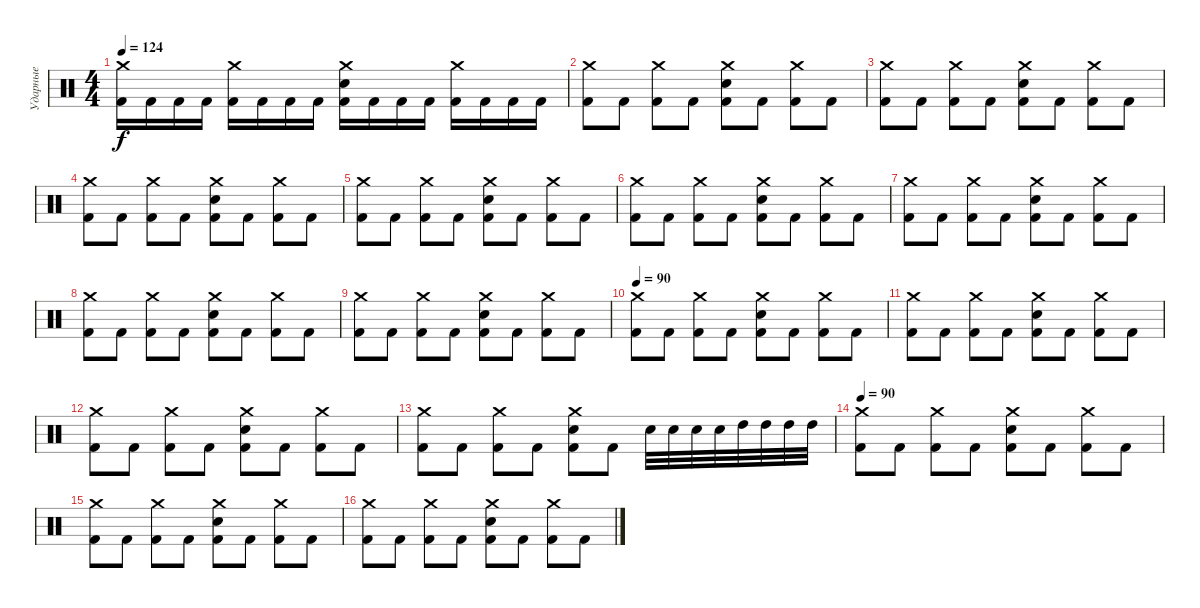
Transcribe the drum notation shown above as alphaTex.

\track ("Ударные" "Ударные") {instrument percussion}
\staff {score}
\articulation defaults
\ts (4 4)
\tempo 124
\clef neutral
\ks c
("Crash medium (hit)" "Kick (hit) 2").16{dy f} "Kick (hit) 2".16 "Kick (hit) 2".16 "Kick (hit) 2".16 ("Crash medium (hit)" "Kick (hit) 2").16 "Kick (hit) 2".16 "Kick (hit) 2".16 "Kick (hit) 2".16 ("Crash medium (hit)" "Electric Snare (hit)" "Kick (hit) 2").16 "Kick (hit) 2".16 "Kick (hit) 2".16 "Kick (hit) 2".16 ("Crash medium (hit)" "Kick (hit) 2").16 "Kick (hit) 2".16 "Kick (hit) 2".16 "Kick (hit) 2".16 |
("Crash medium (hit)" "Kick (hit) 2").8 "Kick (hit) 2".8 ("Crash medium (hit)" "Kick (hit) 2").8 "Kick (hit) 2".8 ("Crash medium (hit)" "Electric Snare (hit)" "Kick (hit) 2").8 "Kick (hit) 2".8 ("Crash medium (hit)" "Kick (hit) 2").8 "Kick (hit) 2".8 |
("Crash medium (hit)" "Kick (hit) 2").8 "Kick (hit) 2".8 ("Crash medium (hit)" "Kick (hit) 2").8 "Kick (hit) 2".8 ("Crash medium (hit)" "Electric Snare (hit)" "Kick (hit) 2").8 "Kick (hit) 2".8 ("Crash medium (hit)" "Kick (hit) 2").8 "Kick (hit) 2".8 |
("Crash medium (hit)" "Kick (hit) 2").8 "Kick (hit) 2".8 ("Crash medium (hit)" "Kick (hit) 2").8 "Kick (hit) 2".8 ("Crash medium (hit)" "Electric Snare (hit)" "Kick (hit) 2").8 "Kick (hit) 2".8 ("Crash medium (hit)" "Kick (hit) 2").8 "Kick (hit) 2".8 |
("Crash medium (hit)" "Kick (hit) 2").8 "Kick (hit) 2".8 ("Crash medium (hit)" "Kick (hit) 2").8 "Kick (hit) 2".8 ("Crash medium (hit)" "Electric Snare (hit)" "Kick (hit) 2").8 "Kick (hit) 2".8 ("Crash medium (hit)" "Kick (hit) 2").8 "Kick (hit) 2".8 |
("Crash medium (hit)" "Kick (hit) 2").8 "Kick (hit) 2".8 ("Crash medium (hit)" "Kick (hit) 2").8 "Kick (hit) 2".8 ("Crash medium (hit)" "Electric Snare (hit)" "Kick (hit) 2").8 "Kick (hit) 2".8 ("Crash medium (hit)" "Kick (hit) 2").8 "Kick (hit) 2".8 |
("Crash medium (hit)" "Kick (hit) 2").8 "Kick (hit) 2".8 ("Crash medium (hit)" "Kick (hit) 2").8 "Kick (hit) 2".8 ("Crash medium (hit)" "Electric Snare (hit)" "Kick (hit) 2").8 "Kick (hit) 2".8 ("Crash medium (hit)" "Kick (hit) 2").8 "Kick (hit) 2".8 |
("Crash medium (hit)" "Kick (hit) 2").8 "Kick (hit) 2".8 ("Crash medium (hit)" "Kick (hit) 2").8 "Kick (hit) 2".8 ("Crash medium (hit)" "Electric Snare (hit)" "Kick (hit) 2").8 "Kick (hit) 2".8 ("Crash medium (hit)" "Kick (hit) 2").8 "Kick (hit) 2".8 |
("Crash medium (hit)" "Kick (hit) 2").8 "Kick (hit) 2".8 ("Crash medium (hit)" "Kick (hit) 2").8 "Kick (hit) 2".8 ("Crash medium (hit)" "Electric Snare (hit)" "Kick (hit) 2").8 "Kick (hit) 2".8 ("Crash medium (hit)" "Kick (hit) 2").8 "Kick (hit) 2".8 |
\tempo 90
("Crash medium (hit)" "Kick (hit) 2").8 "Kick (hit) 2".8 ("Crash medium (hit)" "Kick (hit) 2").8 "Kick (hit) 2".8 ("Crash medium (hit)" "Electric Snare (hit)" "Kick (hit) 2").8 "Kick (hit) 2".8 ("Crash medium (hit)" "Kick (hit) 2").8 "Kick (hit) 2".8 |
("Crash medium (hit)" "Kick (hit) 2").8 "Kick (hit) 2".8 ("Crash medium (hit)" "Kick (hit) 2").8 "Kick (hit) 2".8 ("Crash medium (hit)" "Electric Snare (hit)" "Kick (hit) 2").8 "Kick (hit) 2".8 ("Crash medium (hit)" "Kick (hit) 2").8 "Kick (hit) 2".8 |
("Crash medium (hit)" "Kick (hit) 2").8 "Kick (hit) 2".8 ("Crash medium (hit)" "Kick (hit) 2").8 "Kick (hit) 2".8 ("Crash medium (hit)" "Electric Snare (hit)" "Kick (hit) 2").8 "Kick (hit) 2".8 ("Crash medium (hit)" "Kick (hit) 2").8 "Kick (hit) 2".8 |
("Crash medium (hit)" "Kick (hit) 2").8 "Kick (hit) 2".8 ("Crash medium (hit)" "Kick (hit) 2").8 "Kick (hit) 2".8 ("Crash medium (hit)" "Electric Snare (hit)" "Kick (hit) 2").8 "Kick (hit) 2".8 "Electric Snare (hit)".32 "Electric Snare (hit)".32 "Electric Snare (hit)".32 "Electric Snare (hit)".32 "High Tom (hit)".32 "High Tom (hit)".32 "High Tom (hit)".32 "High Tom (hit)".32 |
\tempo 90
("Crash medium (hit)" "Kick (hit) 2").8 "Kick (hit) 2".8 ("Crash medium (hit)" "Kick (hit) 2").8 "Kick (hit) 2".8 ("Crash medium (hit)" "Electric Snare (hit)" "Kick (hit) 2").8 "Kick (hit) 2".8 ("Crash medium (hit)" "Kick (hit) 2").8 "Kick (hit) 2".8 |
("Crash medium (hit)" "Kick (hit) 2").8 "Kick (hit) 2".8 ("Crash medium (hit)" "Kick (hit) 2").8 "Kick (hit) 2".8 ("Crash medium (hit)" "Electric Snare (hit)" "Kick (hit) 2").8 "Kick (hit) 2".8 ("Crash medium (hit)" "Kick (hit) 2").8 "Kick (hit) 2".8 |
("Crash medium (hit)" "Kick (hit) 2").8 "Kick (hit) 2".8 ("Crash medium (hit)" "Kick (hit) 2").8 "Kick (hit) 2".8 ("Crash medium (hit)" "Electric Snare (hit)" "Kick (hit) 2").8 "Kick (hit) 2".8 ("Crash medium (hit)" "Kick (hit) 2").8 "Kick (hit) 2".8
